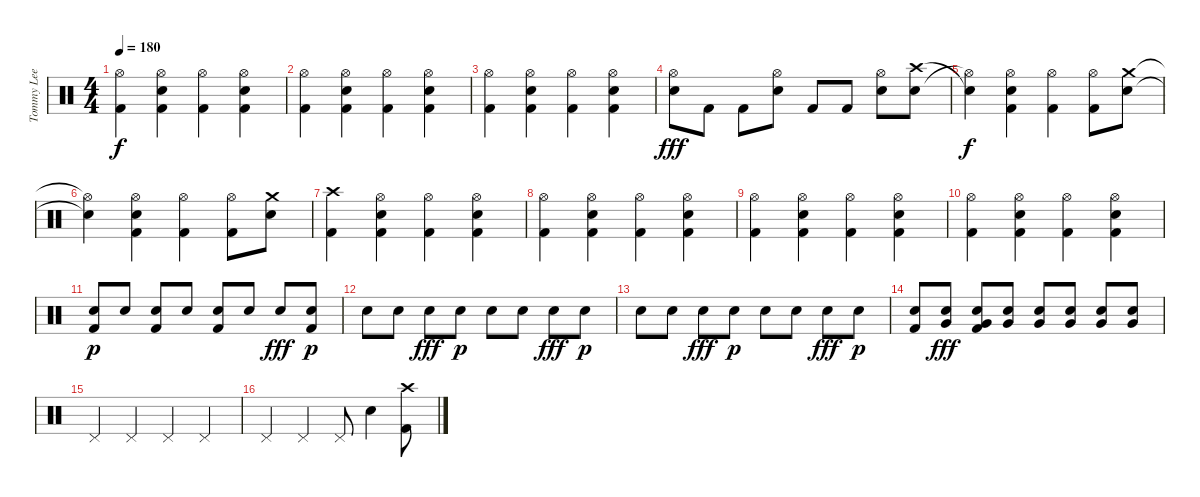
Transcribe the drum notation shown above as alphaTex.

\track ("Tommy Lee" "Tommy Lee") {instrument percussion}
\staff {score}
\articulation defaults
\ts (4 4)
\tempo 180
\clef neutral
\ks c
("Hi-Hat (open)" "Kick (hit) 2").4{dy f} ("Hi-Hat (open)" "Electric Snare (hit)" "Kick (hit) 2").4 ("Hi-Hat (open)" "Kick (hit) 2").4 ("Hi-Hat (open)" "Electric Snare (hit)" "Kick (hit) 2").4 |
("Hi-Hat (open)" "Kick (hit) 2").4 ("Hi-Hat (open)" "Electric Snare (hit)" "Kick (hit) 2").4 ("Hi-Hat (open)" "Kick (hit) 2").4 ("Hi-Hat (open)" "Electric Snare (hit)" "Kick (hit) 2").4 |
("Hi-Hat (open)" "Kick (hit) 2").4 ("Hi-Hat (open)" "Electric Snare (hit)" "Kick (hit) 2").4 ("Hi-Hat (open)" "Kick (hit) 2").4 ("Hi-Hat (open)" "Electric Snare (hit)" "Kick (hit) 2").4 |
("Hi-Hat (open)" "Electric Snare (hit)").8{dy fff} "Kick (hit) 2".8 "Kick (hit) 2".8 ("Hi-Hat (open)" "Electric Snare (hit)").8 "Kick (hit) 2".8 "Kick (hit) 2".8 ("Hi-Hat (open)" "Electric Snare (hit)").8 ("Crash high (hit)" "Electric Snare (hit)").8 |
("Snare (hit)"{t} "Hi-Hat (open)"{t}).4{dy f} ("Hi-Hat (open)" "Electric Snare (hit)" "Kick (hit) 2").4 ("Hi-Hat (open)" "Kick (hit) 2").4 ("Hi-Hat (open)" "Kick (hit) 2").8 ("Crash medium (hit)" "Electric Snare (hit)").8 |
("Hi-Hat (open)"{t} "Snare (hit)"{t}).4 ("Hi-Hat (open)" "Electric Snare (hit)" "Kick (hit) 2").4 ("Hi-Hat (open)" "Kick (hit) 2").4 ("Hi-Hat (open)" "Kick (hit) 2").8 ("Crash medium (hit)" "Electric Snare (hit)").8 |
("Crash high (hit)" "Kick (hit) 2").4 ("Hi-Hat (open)" "Electric Snare (hit)" "Kick (hit) 2").4 ("Hi-Hat (open)" "Kick (hit) 2").4 ("Hi-Hat (open)" "Electric Snare (hit)" "Kick (hit) 2").4 |
("Hi-Hat (open)" "Kick (hit) 2").4 ("Hi-Hat (open)" "Electric Snare (hit)" "Kick (hit) 2").4 ("Hi-Hat (open)" "Kick (hit) 2").4 ("Hi-Hat (open)" "Electric Snare (hit)" "Kick (hit) 2").4 |
("Hi-Hat (open)" "Kick (hit) 2").4 ("Hi-Hat (open)" "Electric Snare (hit)" "Kick (hit) 2").4 ("Hi-Hat (open)" "Kick (hit) 2").4 ("Hi-Hat (open)" "Electric Snare (hit)" "Kick (hit) 2").4 |
("Hi-Hat (open)" "Kick (hit) 2").4 ("Hi-Hat (open)" "Electric Snare (hit)" "Kick (hit) 2").4 ("Hi-Hat (open)" "Kick (hit) 2").4 ("Hi-Hat (open)" "Electric Snare (hit)" "Kick (hit) 2").4 |
("Electric Snare (hit)" "Kick (hit) 2").8{dy p} "Electric Snare (hit)".8 ("Electric Snare (hit)" "Kick (hit) 2").8 "Electric Snare (hit)".8 ("Electric Snare (hit)" "Kick (hit) 2").8 "Electric Snare (hit)".8 "Electric Snare (hit)".8{dy fff} ("Electric Snare (hit)" "Kick (hit) 2").8{dy p} |
"Electric Snare (hit)".8 "Electric Snare (hit)".8 "Electric Snare (hit)".8{dy fff} "Electric Snare (hit)".8{dy p} "Electric Snare (hit)".8 "Electric Snare (hit)".8 "Electric Snare (hit)".8{dy fff} "Electric Snare (hit)".8{dy p} |
"Electric Snare (hit)".8 "Electric Snare (hit)".8 "Electric Snare (hit)".8{dy fff} "Electric Snare (hit)".8{dy p} "Electric Snare (hit)".8 "Electric Snare (hit)".8 "Electric Snare (hit)".8{dy fff} "Electric Snare (hit)".8{dy p} |
("Electric Snare (hit)" "Kick (hit) 2").8 ("Very Low Tom (hit)" "Electric Snare (hit)").8{dy fff} ("Very Low Tom (hit)" "Electric Snare (hit)" "Kick (hit) 2").8 ("Very Low Tom (hit)" "Electric Snare (hit)").8 ("Very Low Tom (hit)" "Electric Snare (hit)").8 ("Very Low Tom (hit)" "Electric Snare (hit)").8 ("Very Low Tom (hit)" "Electric Snare (hit)").8 ("Very Low Tom (hit)" "Electric Snare (hit)").8 |
"Pedal Hi-Hat (hit)".4 "Pedal Hi-Hat (hit)".4 "Pedal Hi-Hat (hit)".4 "Pedal Hi-Hat (hit)".4 |
"Pedal Hi-Hat (hit)".4 "Pedal Hi-Hat (hit)".4 "Pedal Hi-Hat (hit)".8 "Electric Snare (hit)".4 ("Crash high (hit)" "Kick (hit) 2").8
